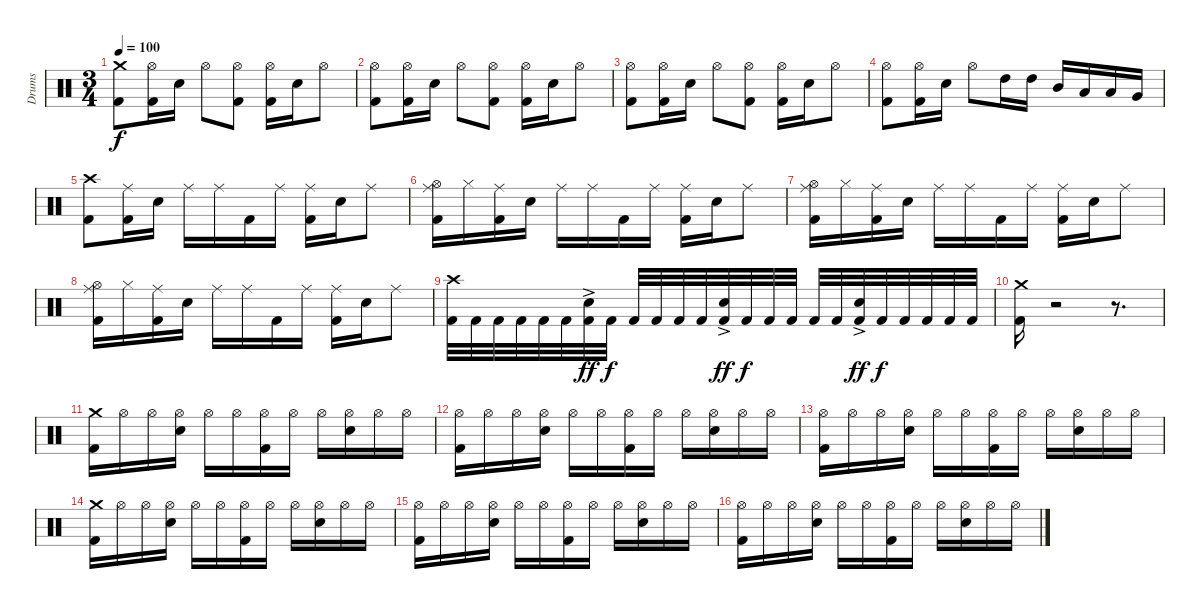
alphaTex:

\track ("Drums" "Drums") {instrument percussion}
\staff {score}
\articulation defaults
\ts (3 4)
\tempo 100
\clef neutral
\ks c
("Crash medium (hit)" "Kick (hit) 2").8{dy f} ("Hi-Hat (open)" "Kick (hit) 2").16 "Electric Snare (hit)".16 "Hi-Hat (open)".8 ("Hi-Hat (open)" "Kick (hit) 2").8 ("Hi-Hat (open)" "Kick (hit) 2").16 "Electric Snare (hit)".16 "Hi-Hat (open)".8 |
("Hi-Hat (open)" "Kick (hit) 2").8 ("Hi-Hat (open)" "Kick (hit) 2").16 "Electric Snare (hit)".16 "Hi-Hat (open)".8 ("Hi-Hat (open)" "Kick (hit) 2").8 ("Hi-Hat (open)" "Kick (hit) 2").16 "Electric Snare (hit)".16 "Hi-Hat (open)".8 |
("Hi-Hat (open)" "Kick (hit) 2").8 ("Hi-Hat (open)" "Kick (hit) 2").16 "Electric Snare (hit)".16 "Hi-Hat (open)".8 ("Hi-Hat (open)" "Kick (hit) 2").8 ("Hi-Hat (open)" "Kick (hit) 2").16 "Electric Snare (hit)".16 "Hi-Hat (open)".8 |
("Hi-Hat (open)" "Kick (hit) 2").8 ("Hi-Hat (open)" "Kick (hit) 2").16 "Electric Snare (hit)".16 "Hi-Hat (open)".8 "High Tom (hit)".16 "High Tom (hit)".16 "Mid Tom (hit)".16 "Low Tom (hit)".16 "Low Tom (hit)".16 "Very Low Tom (hit)".16 |
("Crash high (hit)" "Kick (hit) 2").8 ("Ride (middle)" "Kick (hit) 2").16 "Electric Snare (hit)".16 "Ride (middle)".16 "Ride (middle)".16 "Kick (hit) 2".16 "Ride (middle)".16 ("Ride (middle)" "Kick (hit) 2").16 "Electric Snare (hit)".16 "Ride (middle)".8 |
("Ride (middle)" "Hi-Hat (open)" "Kick (hit) 2").16 "Hi-Hat (closed)".16 ("Ride (middle)" "Kick (hit) 2").16 "Electric Snare (hit)".16 "Ride (middle)".16 "Ride (middle)".16 "Kick (hit) 2".16 "Ride (middle)".16 ("Ride (middle)" "Kick (hit) 2").16 "Electric Snare (hit)".16 "Ride (middle)".8 |
("Ride (middle)" "Hi-Hat (open)" "Kick (hit) 2").16 "Hi-Hat (closed)".16 ("Ride (middle)" "Kick (hit) 2").16 "Electric Snare (hit)".16 "Ride (middle)".16 "Ride (middle)".16 "Kick (hit) 2".16 "Ride (middle)".16 ("Ride (middle)" "Kick (hit) 2").16 "Electric Snare (hit)".16 "Ride (middle)".8 |
("Ride (middle)" "Hi-Hat (open)" "Kick (hit) 2").16 "Hi-Hat (closed)".16 ("Ride (middle)" "Kick (hit) 2").16 "Electric Snare (hit)".16 "Ride (middle)".16 "Ride (middle)".16 "Kick (hit) 2".16 "Ride (middle)".16 ("Ride (middle)" "Kick (hit) 2").16 "Electric Snare (hit)".16 "Ride (middle)".8 |
("Crash high (hit)" "Kick (hit) 2").32 "Kick (hit) 2".32 "Kick (hit) 2".32 "Kick (hit) 2".32 "Kick (hit) 2".32 "Kick (hit) 2".32 ("Electric Snare (hit)"{ac} "Kick (hit) 2").32{dy ff} "Kick (hit) 2".32{dy f} "Kick (hit) 2".32 "Kick (hit) 2".32 "Kick (hit) 2".32 "Kick (hit) 2".32 ("Electric Snare (hit)"{ac} "Kick (hit) 2").32{dy ff} "Kick (hit) 2".32{dy f} "Kick (hit) 2".32 "Kick (hit) 2".32 "Kick (hit) 2".32 "Kick (hit) 2".32 ("Electric Snare (hit)"{ac} "Kick (hit) 2").32{dy ff} "Kick (hit) 2".32{dy f} "Kick (hit) 2".32 "Kick (hit) 2".32 "Kick (hit) 2".32 "Kick (hit) 2".32 |
("Crash medium (hit)" "Kick (hit) 2").16 r.2{volume 0} r.8{d} |
("Crash medium (hit)" "Kick (hit) 2").16{volume 12} "Hi-Hat (open)".16 "Hi-Hat (open)".16 ("Hi-Hat (open)" "Electric Snare (hit)").16 "Hi-Hat (open)".16 "Hi-Hat (open)".16 ("Hi-Hat (open)" "Kick (hit) 2").16 "Hi-Hat (open)".16 "Hi-Hat (open)".16 ("Hi-Hat (open)" "Electric Snare (hit)").16 "Hi-Hat (open)".16 "Hi-Hat (open)".16 |
("Hi-Hat (open)" "Kick (hit) 2").16 "Hi-Hat (open)".16 "Hi-Hat (open)".16 ("Hi-Hat (open)" "Electric Snare (hit)").16 "Hi-Hat (open)".16 "Hi-Hat (open)".16 ("Hi-Hat (open)" "Kick (hit) 2").16 "Hi-Hat (open)".16 "Hi-Hat (open)".16 ("Hi-Hat (open)" "Electric Snare (hit)").16 "Hi-Hat (open)".16 "Hi-Hat (open)".16 |
("Hi-Hat (open)" "Kick (hit) 2").16 "Hi-Hat (open)".16 "Hi-Hat (open)".16 ("Hi-Hat (open)" "Electric Snare (hit)").16 "Hi-Hat (open)".16 "Hi-Hat (open)".16 ("Hi-Hat (open)" "Kick (hit) 2").16 "Hi-Hat (open)".16 "Hi-Hat (open)".16 ("Hi-Hat (open)" "Electric Snare (hit)").16 "Hi-Hat (open)".16 "Hi-Hat (open)".16 |
("Crash medium (hit)" "Kick (hit) 2").16 "Hi-Hat (open)".16 "Hi-Hat (open)".16 ("Hi-Hat (open)" "Electric Snare (hit)").16 "Hi-Hat (open)".16 "Hi-Hat (open)".16 ("Hi-Hat (open)" "Kick (hit) 2").16 "Hi-Hat (open)".16 "Hi-Hat (open)".16 ("Hi-Hat (open)" "Electric Snare (hit)").16 "Hi-Hat (open)".16 "Hi-Hat (open)".16 |
("Hi-Hat (open)" "Kick (hit) 2").16 "Hi-Hat (open)".16 "Hi-Hat (open)".16 ("Hi-Hat (open)" "Electric Snare (hit)").16 "Hi-Hat (open)".16 "Hi-Hat (open)".16 ("Hi-Hat (open)" "Kick (hit) 2").16 "Hi-Hat (open)".16 "Hi-Hat (open)".16 ("Hi-Hat (open)" "Electric Snare (hit)").16 "Hi-Hat (open)".16 "Hi-Hat (open)".16 |
("Hi-Hat (open)" "Kick (hit) 2").16 "Hi-Hat (open)".16 "Hi-Hat (open)".16 ("Hi-Hat (open)" "Electric Snare (hit)").16 "Hi-Hat (open)".16 "Hi-Hat (open)".16 ("Hi-Hat (open)" "Kick (hit) 2").16 "Hi-Hat (open)".16 "Hi-Hat (open)".16 ("Hi-Hat (open)" "Electric Snare (hit)").16 "Hi-Hat (open)".16 "Hi-Hat (open)".16
